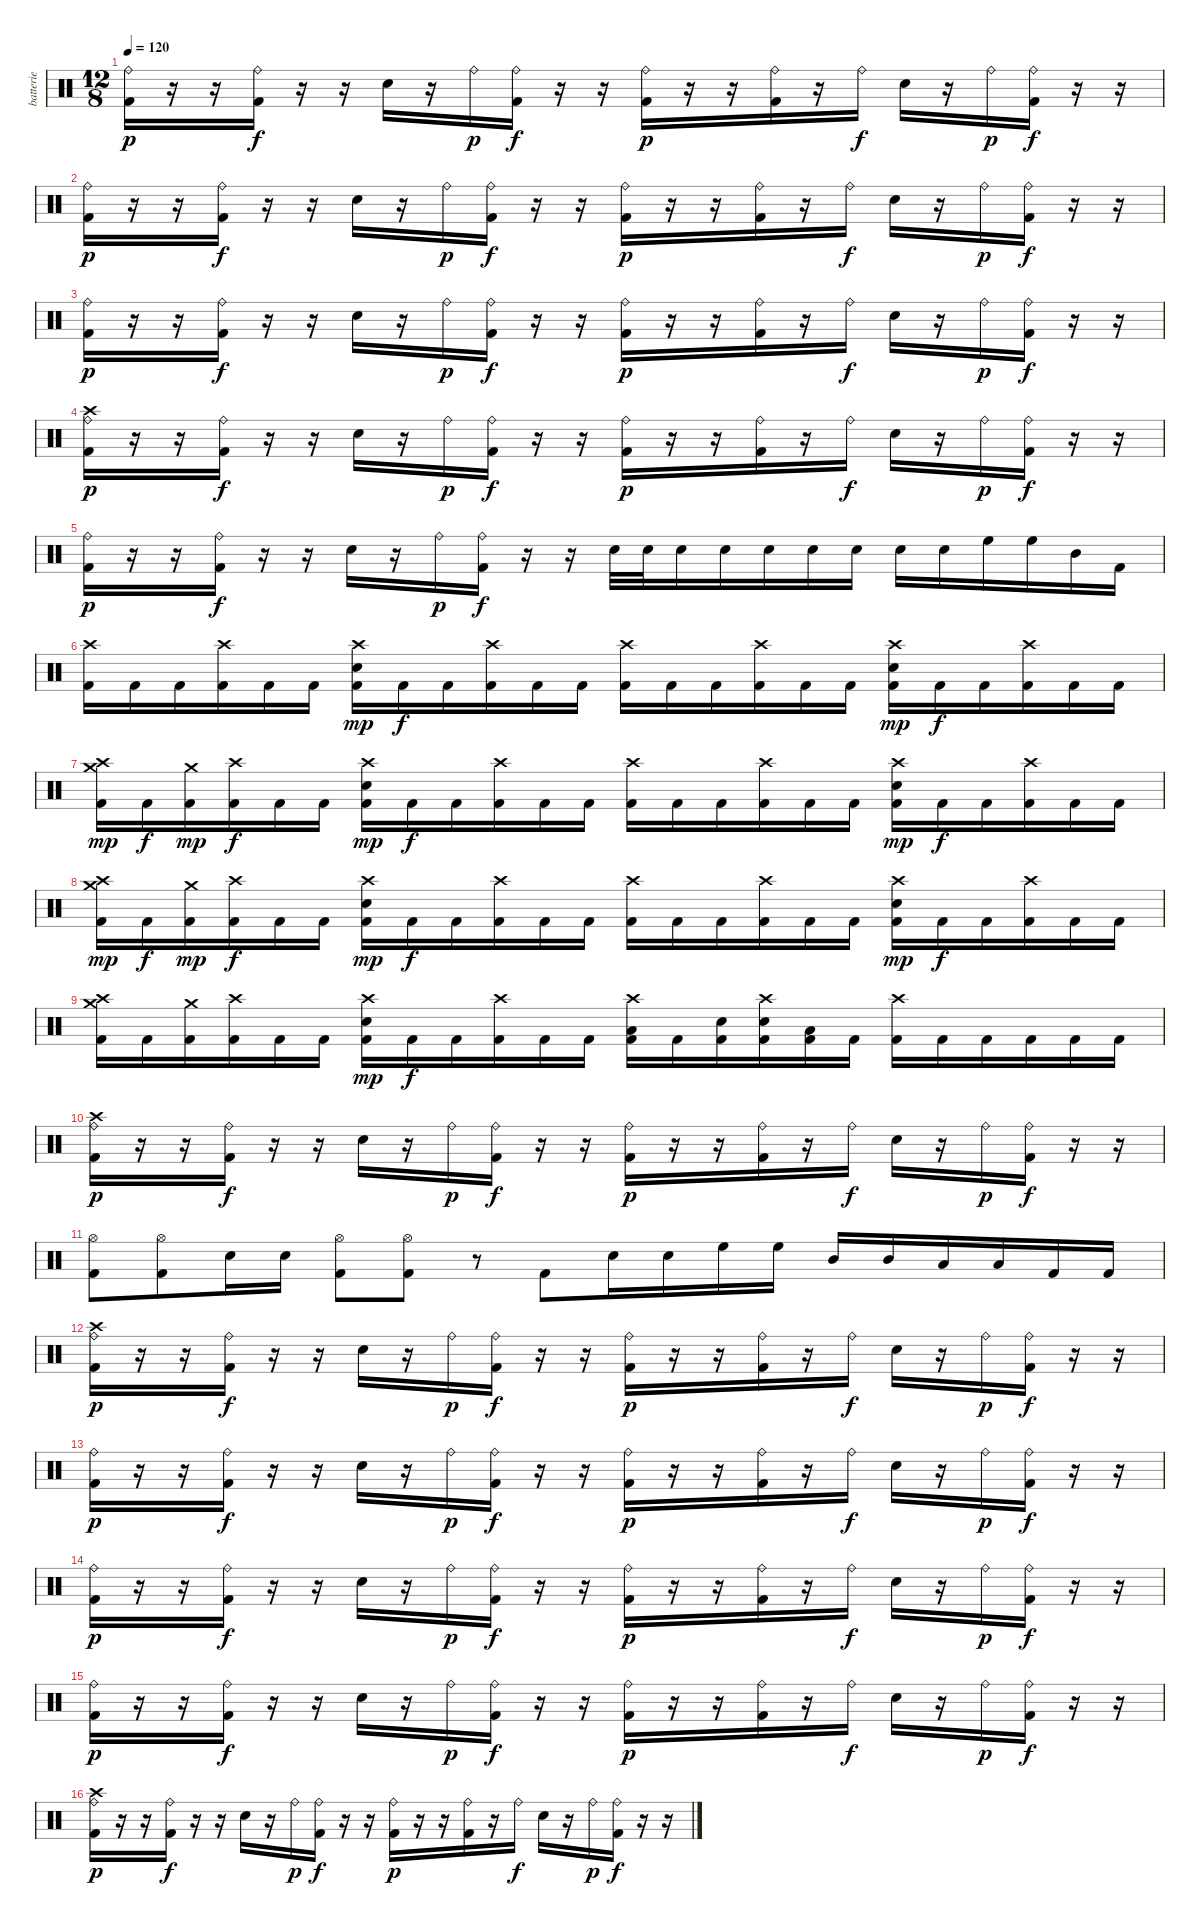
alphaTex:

\track ("batterie" "batterie") {instrument percussion}
\staff {score}
\articulation defaults
\ts (12 8)
\tempo 120
\clef neutral
\ks c
("Ride (bell)" "Kick (hit) 2").16{dy p} r.16 r.16 ("Ride (bell)" "Kick (hit) 2").16{dy f} r.16 r.16 "Snare (hit) 2".16 r.16 "Ride (bell)".16{dy p} ("Ride (bell)" "Kick (hit) 2").16{dy f} r.16 r.16 ("Ride (bell)" "Kick (hit) 2").16{dy p} r.16 r.16 ("Ride (bell)" "Kick (hit) 2").16 r.16 "Ride (bell)".16{dy f} "Snare (hit) 2".16 r.16 "Ride (bell)".16{dy p} ("Ride (bell)" "Kick (hit) 2").16{dy f} r.16 r.16 |
("Ride (bell)" "Kick (hit) 2").16{dy p} r.16 r.16 ("Ride (bell)" "Kick (hit) 2").16{dy f} r.16 r.16 "Snare (hit) 2".16 r.16 "Ride (bell)".16{dy p} ("Ride (bell)" "Kick (hit) 2").16{dy f} r.16 r.16 ("Ride (bell)" "Kick (hit) 2").16{dy p} r.16 r.16 ("Ride (bell)" "Kick (hit) 2").16 r.16 "Ride (bell)".16{dy f} "Snare (hit) 2".16 r.16 "Ride (bell)".16{dy p} ("Ride (bell)" "Kick (hit) 2").16{dy f} r.16 r.16 |
("Ride (bell)" "Kick (hit) 2").16{dy p} r.16 r.16 ("Ride (bell)" "Kick (hit) 2").16{dy f} r.16 r.16 "Snare (hit) 2".16 r.16 "Ride (bell)".16{dy p} ("Ride (bell)" "Kick (hit) 2").16{dy f} r.16 r.16 ("Ride (bell)" "Kick (hit) 2").16{dy p} r.16 r.16 ("Ride (bell)" "Kick (hit) 2").16 r.16 "Ride (bell)".16{dy f} "Snare (hit) 2".16 r.16 "Ride (bell)".16{dy p} ("Ride (bell)" "Kick (hit) 2").16{dy f} r.16 r.16 |
("Ride (bell)" "Kick (hit) 2" "Crash high (hit)").16{dy p} r.16 r.16 ("Ride (bell)" "Kick (hit) 2").16{dy f} r.16 r.16 "Snare (hit) 2".16 r.16 "Ride (bell)".16{dy p} ("Ride (bell)" "Kick (hit) 2").16{dy f} r.16 r.16 ("Ride (bell)" "Kick (hit) 2").16{dy p} r.16 r.16 ("Ride (bell)" "Kick (hit) 2").16 r.16 "Ride (bell)".16{dy f} "Snare (hit) 2".16 r.16 "Ride (bell)".16{dy p} ("Ride (bell)" "Kick (hit) 2").16{dy f} r.16 r.16 |
("Ride (bell)" "Kick (hit) 2").16{dy p} r.16 r.16 ("Ride (bell)" "Kick (hit) 2").16{dy f} r.16 r.16 "Snare (hit) 2".16 r.16 "Ride (bell)".16{dy p} ("Ride (bell)" "Kick (hit) 2").16{dy f} r.16 r.16 "Snare (hit) 2".32 "Snare (hit) 2".32 "Snare (hit) 2".16 "Snare (hit) 2".16 "Snare (hit) 2".16 "Snare (hit) 2".16 "Snare (hit) 2".16 "Snare (hit) 2".16 "Snare (hit) 2".16 "High Floor Tom (hit)".16 "High Floor Tom (hit)".16 "Mid Tom (hit)".16 "Kick (hit) 2".16 |
("Crash high (hit)" "Kick (hit) 2").16 "Kick (hit) 2".16 "Kick (hit) 2".16 ("Crash high (hit)" "Kick (hit) 2").16 "Kick (hit) 2".16 "Kick (hit) 2".16 ("Crash high (hit)" "Kick (hit) 2" "Snare (hit) 2").16{dy mp} "Kick (hit) 2".16{dy f} "Kick (hit) 2".16 ("Crash high (hit)" "Kick (hit) 2").16 "Kick (hit) 2".16 "Kick (hit) 2".16 ("Crash high (hit)" "Kick (hit) 2").16 "Kick (hit) 2".16 "Kick (hit) 2".16 ("Crash high (hit)" "Kick (hit) 2").16 "Kick (hit) 2".16 "Kick (hit) 2".16 ("Crash high (hit)" "Kick (hit) 2" "Snare (hit) 2").16{dy mp} "Kick (hit) 2".16{dy f} "Kick (hit) 2".16 ("Crash high (hit)" "Kick (hit) 2").16 "Kick (hit) 2".16 "Kick (hit) 2".16 |
("Crash high (hit)" "Kick (hit) 2" "Crash medium (hit)").16{dy mp} "Kick (hit) 2".16{dy f} ("Kick (hit) 2" "Crash medium (hit)").16{dy mp} ("Crash high (hit)" "Kick (hit) 2").16{dy f} "Kick (hit) 2".16 "Kick (hit) 2".16 ("Crash high (hit)" "Kick (hit) 2" "Snare (hit) 2").16{dy mp} "Kick (hit) 2".16{dy f} "Kick (hit) 2".16 ("Crash high (hit)" "Kick (hit) 2").16 "Kick (hit) 2".16 "Kick (hit) 2".16 ("Crash high (hit)" "Kick (hit) 2").16 "Kick (hit) 2".16 "Kick (hit) 2".16 ("Crash high (hit)" "Kick (hit) 2").16 "Kick (hit) 2".16 "Kick (hit) 2".16 ("Crash high (hit)" "Kick (hit) 2" "Snare (hit) 2").16{dy mp} "Kick (hit) 2".16{dy f} "Kick (hit) 2".16 ("Crash high (hit)" "Kick (hit) 2").16 "Kick (hit) 2".16 "Kick (hit) 2".16 |
("Crash high (hit)" "Kick (hit) 2" "Crash medium (hit)").16{dy mp} "Kick (hit) 2".16{dy f} ("Kick (hit) 2" "Crash medium (hit)").16{dy mp} ("Crash high (hit)" "Kick (hit) 2").16{dy f} "Kick (hit) 2".16 "Kick (hit) 2".16 ("Crash high (hit)" "Kick (hit) 2" "Snare (hit) 2").16{dy mp} "Kick (hit) 2".16{dy f} "Kick (hit) 2".16 ("Crash high (hit)" "Kick (hit) 2").16 "Kick (hit) 2".16 "Kick (hit) 2".16 ("Crash high (hit)" "Kick (hit) 2").16 "Kick (hit) 2".16 "Kick (hit) 2".16 ("Crash high (hit)" "Kick (hit) 2").16 "Kick (hit) 2".16 "Kick (hit) 2".16 ("Crash high (hit)" "Kick (hit) 2" "Snare (hit) 2").16{dy mp} "Kick (hit) 2".16{dy f} "Kick (hit) 2".16 ("Crash high (hit)" "Kick (hit) 2").16 "Kick (hit) 2".16 "Kick (hit) 2".16 |
("Crash high (hit)" "Kick (hit) 2" "Crash medium (hit)").16 "Kick (hit) 2".16 ("Kick (hit) 2" "Crash medium (hit)").16 ("Crash high (hit)" "Kick (hit) 2").16 "Kick (hit) 2".16 "Kick (hit) 2".16 ("Crash high (hit)" "Kick (hit) 2" "Snare (hit) 2").16{dy mp} "Kick (hit) 2".16{dy f} "Kick (hit) 2".16 ("Crash high (hit)" "Kick (hit) 2").16 "Kick (hit) 2".16 "Kick (hit) 2".16 ("Crash high (hit)" "Kick (hit) 2" "Low Floor Tom (hit)").16 "Kick (hit) 2".16 ("Kick (hit) 2" "Snare (hit) 2").16 ("Crash high (hit)" "Kick (hit) 2" "Snare (hit) 2").16 ("Kick (hit) 2" "Low Floor Tom (hit)").16 "Kick (hit) 2".16 ("Crash high (hit)" "Kick (hit) 2").16 "Kick (hit) 2".16 "Kick (hit) 2".16 "Kick (hit) 2".16 "Kick (hit) 2".16 "Kick (hit) 2".16 |
("Ride (bell)" "Kick (hit) 2" "Crash high (hit)").16{dy p} r.16 r.16 ("Ride (bell)" "Kick (hit) 2").16{dy f} r.16 r.16 "Snare (hit) 2".16 r.16 "Ride (bell)".16{dy p} ("Ride (bell)" "Kick (hit) 2").16{dy f} r.16 r.16 ("Ride (bell)" "Kick (hit) 2").16{dy p} r.16 r.16 ("Ride (bell)" "Kick (hit) 2").16 r.16 "Ride (bell)".16{dy f} "Snare (hit) 2".16 r.16 "Ride (bell)".16{dy p} ("Ride (bell)" "Kick (hit) 2").16{dy f} r.16 r.16 |
("Kick (hit) 2" "Hi-Hat (open)").8 ("Kick (hit) 2" "Hi-Hat (open)").8 "Snare (hit) 2".16 "Snare (hit) 2".16 ("Kick (hit) 2" "Hi-Hat (open)").8 ("Kick (hit) 2" "Hi-Hat (open)").8 r.8 "Kick (hit) 2".8 "Snare (hit) 2".16 "Snare (hit) 2".16 "High Floor Tom (hit)".16 "High Floor Tom (hit)".16 "Mid Tom (hit)".16 "Mid Tom (hit)".16 "Low Tom (hit)".16 "Low Tom (hit)".16 "Kick (hit) 2".16 "Kick (hit) 2".16 |
("Ride (bell)" "Kick (hit) 2" "Crash high (hit)").16{dy p} r.16 r.16 ("Ride (bell)" "Kick (hit) 2").16{dy f} r.16 r.16 "Snare (hit) 2".16 r.16 "Ride (bell)".16{dy p} ("Ride (bell)" "Kick (hit) 2").16{dy f} r.16 r.16 ("Ride (bell)" "Kick (hit) 2").16{dy p} r.16 r.16 ("Ride (bell)" "Kick (hit) 2").16 r.16 "Ride (bell)".16{dy f} "Snare (hit) 2".16 r.16 "Ride (bell)".16{dy p} ("Ride (bell)" "Kick (hit) 2").16{dy f} r.16 r.16 |
("Ride (bell)" "Kick (hit) 2").16{dy p} r.16 r.16 ("Ride (bell)" "Kick (hit) 2").16{dy f} r.16 r.16 "Snare (hit) 2".16 r.16 "Ride (bell)".16{dy p} ("Ride (bell)" "Kick (hit) 2").16{dy f} r.16 r.16 ("Ride (bell)" "Kick (hit) 2").16{dy p} r.16 r.16 ("Ride (bell)" "Kick (hit) 2").16 r.16 "Ride (bell)".16{dy f} "Snare (hit) 2".16 r.16 "Ride (bell)".16{dy p} ("Ride (bell)" "Kick (hit) 2").16{dy f} r.16 r.16 |
("Ride (bell)" "Kick (hit) 2").16{dy p} r.16 r.16 ("Ride (bell)" "Kick (hit) 2").16{dy f} r.16 r.16 "Snare (hit) 2".16 r.16 "Ride (bell)".16{dy p} ("Ride (bell)" "Kick (hit) 2").16{dy f} r.16 r.16 ("Ride (bell)" "Kick (hit) 2").16{dy p} r.16 r.16 ("Ride (bell)" "Kick (hit) 2").16 r.16 "Ride (bell)".16{dy f} "Snare (hit) 2".16 r.16 "Ride (bell)".16{dy p} ("Ride (bell)" "Kick (hit) 2").16{dy f} r.16 r.16 |
("Ride (bell)" "Kick (hit) 2").16{dy p} r.16 r.16 ("Ride (bell)" "Kick (hit) 2").16{dy f} r.16 r.16 "Snare (hit) 2".16 r.16 "Ride (bell)".16{dy p} ("Ride (bell)" "Kick (hit) 2").16{dy f} r.16 r.16 ("Ride (bell)" "Kick (hit) 2").16{dy p} r.16 r.16 ("Ride (bell)" "Kick (hit) 2").16 r.16 "Ride (bell)".16{dy f} "Snare (hit) 2".16 r.16 "Ride (bell)".16{dy p} ("Ride (bell)" "Kick (hit) 2").16{dy f} r.16 r.16 |
("Ride (bell)" "Kick (hit) 2" "Crash high (hit)").16{dy p} r.16 r.16 ("Ride (bell)" "Kick (hit) 2").16{dy f} r.16 r.16 "Snare (hit) 2".16 r.16 "Ride (bell)".16{dy p} ("Ride (bell)" "Kick (hit) 2").16{dy f} r.16 r.16 ("Ride (bell)" "Kick (hit) 2").16{dy p} r.16 r.16 ("Ride (bell)" "Kick (hit) 2").16 r.16 "Ride (bell)".16{dy f} "Snare (hit) 2".16 r.16 "Ride (bell)".16{dy p} ("Ride (bell)" "Kick (hit) 2").16{dy f} r.16 r.16
